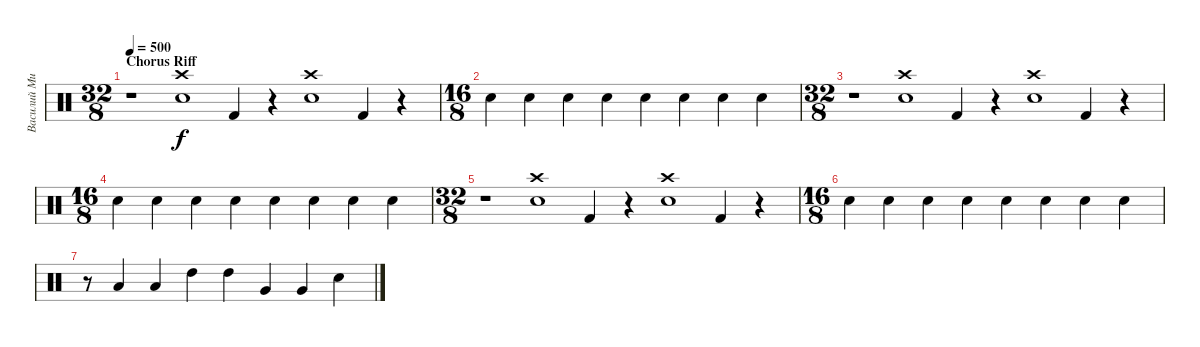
\track ("Василий Михалыч-ударные" "Василий Ми") {instrument percussion}
\staff {score}
\articulation defaults
\ts (32 8)
\section ("" "Chorus Riff")
\tempo 500
\clef neutral
\ks c
r.1{dy f} ("Electric Snare (hit)" "Crash high (hit)").1 "Kick (hit) 2".4 r.4 ("Electric Snare (hit)" "Crash high (hit)").1 "Kick (hit) 2".4 r.4 |
\ts (16 8)
"Electric Snare (hit)".4 "Electric Snare (hit)".4 "Electric Snare (hit)".4 "Electric Snare (hit)".4 "Electric Snare (hit)".4 "Electric Snare (hit)".4 "Electric Snare (hit)".4 "Electric Snare (hit)".4 |
\ts (32 8)
r.1 ("Electric Snare (hit)" "Crash high (hit)").1 "Kick (hit) 2".4 r.4 ("Electric Snare (hit)" "Crash high (hit)").1 "Kick (hit) 2".4 r.4 |
\ts (16 8)
"Electric Snare (hit)".4 "Electric Snare (hit)".4 "Electric Snare (hit)".4 "Electric Snare (hit)".4 "Electric Snare (hit)".4 "Electric Snare (hit)".4 "Electric Snare (hit)".4 "Electric Snare (hit)".4 |
\ts (32 8)
r.1 ("Electric Snare (hit)" "Crash high (hit)").1 "Kick (hit) 2".4 r.4 ("Electric Snare (hit)" "Crash high (hit)").1 "Kick (hit) 2".4 r.4 |
\ts (16 8)
"Electric Snare (hit)".4 "Electric Snare (hit)".4 "Electric Snare (hit)".4 "Electric Snare (hit)".4 "Electric Snare (hit)".4 "Electric Snare (hit)".4 "Electric Snare (hit)".4 "Electric Snare (hit)".4 |
r.8 "Low Tom (hit)".4 "Low Tom (hit)".4 "High Tom (hit)".4 "High Tom (hit)".4 "Very Low Tom (hit)".4 "Very Low Tom (hit)".4 "Electric Snare (hit)".4
